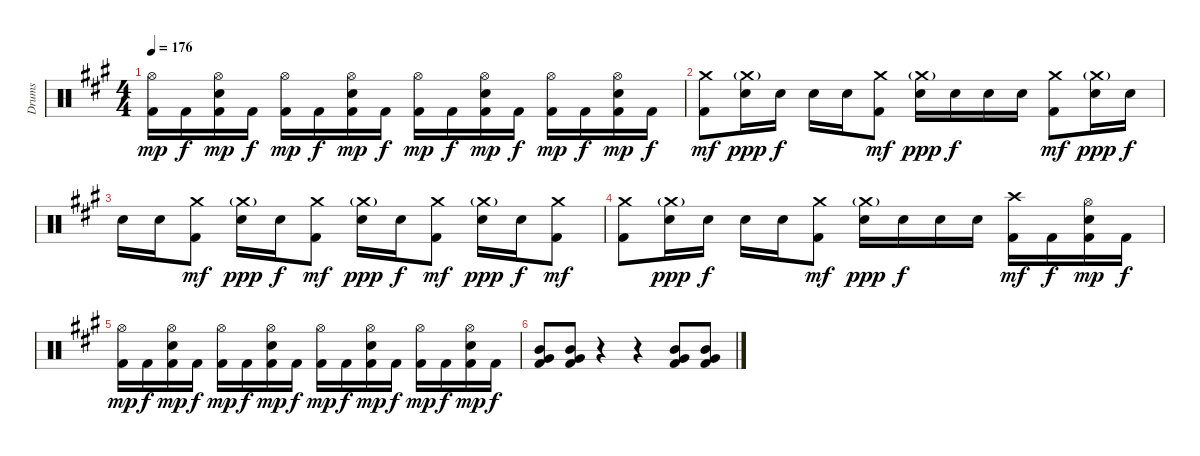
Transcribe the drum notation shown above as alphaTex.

\track ("Drums" "Drums") {instrument percussion}
\staff {score}
\articulation defaults
\ts (4 4)
\tempo 176
\clef neutral
\ks f#minor
("Hi-Hat (open)" "Kick (hit) 2").16{dy mp} "Kick (hit) 2".16{dy f} ("Hi-Hat (open)" "Electric Snare (hit)" "Kick (hit) 2").16{dy mp} "Kick (hit) 2".16{dy f} ("Hi-Hat (open)" "Kick (hit) 2").16{dy mp} "Kick (hit) 2".16{dy f} ("Hi-Hat (open)" "Electric Snare (hit)" "Kick (hit) 2").16{dy mp} "Kick (hit) 2".16{dy f} ("Hi-Hat (open)" "Kick (hit) 2").16{dy mp} "Kick (hit) 2".16{dy f} ("Hi-Hat (open)" "Electric Snare (hit)" "Kick (hit) 2").16{dy mp} "Kick (hit) 2".16{dy f} ("Hi-Hat (open)" "Kick (hit) 2").16{dy mp} "Kick (hit) 2".16{dy f} ("Hi-Hat (open)" "Electric Snare (hit)" "Kick (hit) 2").16{dy mp} "Kick (hit) 2".16{dy f} |
("Crash medium (hit)" "Kick (hit) 2").8{dy mf} ("Crash medium (hit)"{g} "Electric Snare (hit)").16{dy ppp} "Electric Snare (hit)".16{dy f} "Electric Snare (hit)".16 "Electric Snare (hit)".16 ("Crash medium (hit)" "Kick (hit) 2").8{dy mf} ("Crash medium (hit)"{g} "Electric Snare (hit)").16{dy ppp} "Electric Snare (hit)".16{dy f} "Electric Snare (hit)".16 "Electric Snare (hit)".16 ("Crash medium (hit)" "Kick (hit) 2").8{dy mf} ("Crash medium (hit)"{g} "Electric Snare (hit)").16{dy ppp} "Electric Snare (hit)".16{dy f} |
"Electric Snare (hit)".16 "Electric Snare (hit)".16 ("Crash medium (hit)" "Kick (hit) 2").8{dy mf} ("Crash medium (hit)"{g} "Electric Snare (hit)").16{dy ppp} "Electric Snare (hit)".16{dy f} ("Crash medium (hit)" "Kick (hit) 2").8{dy mf} ("Crash medium (hit)"{g} "Electric Snare (hit)").16{dy ppp} "Electric Snare (hit)".16{dy f} ("Crash medium (hit)" "Kick (hit) 2").8{dy mf} ("Crash medium (hit)"{g} "Electric Snare (hit)").16{dy ppp} "Electric Snare (hit)".16{dy f} ("Crash medium (hit)" "Kick (hit) 2").8{dy mf} |
("Crash medium (hit)" "Kick (hit) 2").8 ("Crash medium (hit)"{g} "Electric Snare (hit)").16{dy ppp} "Electric Snare (hit)".16{dy f} "Electric Snare (hit)".16 "Electric Snare (hit)".16 ("Crash medium (hit)" "Kick (hit) 2").8{dy mf} ("Crash medium (hit)"{g} "Electric Snare (hit)").16{dy ppp} "Electric Snare (hit)".16{dy f} "Electric Snare (hit)".16 "Electric Snare (hit)".16 ("Crash high (hit)" "Kick (hit) 2").16{dy mf} "Kick (hit) 2".16{dy f} ("Hi-Hat (open)" "Electric Snare (hit)" "Kick (hit) 2").16{dy mp} "Kick (hit) 2".16{dy f} |
("Hi-Hat (open)" "Kick (hit) 2").16{dy mp} "Kick (hit) 2".16{dy f} ("Hi-Hat (open)" "Electric Snare (hit)" "Kick (hit) 2").16{dy mp} "Kick (hit) 2".16{dy f} ("Hi-Hat (open)" "Kick (hit) 2").16{dy mp} "Kick (hit) 2".16{dy f} ("Hi-Hat (open)" "Electric Snare (hit)" "Kick (hit) 2").16{dy mp} "Kick (hit) 2".16{dy f} ("Hi-Hat (open)" "Kick (hit) 2").16{dy mp} "Kick (hit) 2".16{dy f} ("Hi-Hat (open)" "Electric Snare (hit)" "Kick (hit) 2").16{dy mp} "Kick (hit) 2".16{dy f} ("Hi-Hat (open)" "Kick (hit) 2").16{dy mp} "Kick (hit) 2".16{dy f} ("Hi-Hat (open)" "Electric Snare (hit)" "Kick (hit) 2").16{dy mp} "Kick (hit) 2".16{dy f} |
("Mid Tom (hit)" "Very Low Tom (hit)" "Kick (hit) 2").8 ("Mid Tom (hit)" "Very Low Tom (hit)" "Kick (hit) 2").8 r.4 r.4 ("Mid Tom (hit)" "Very Low Tom (hit)" "Kick (hit) 2").8 ("Mid Tom (hit)" "Very Low Tom (hit)" "Kick (hit) 2").8
